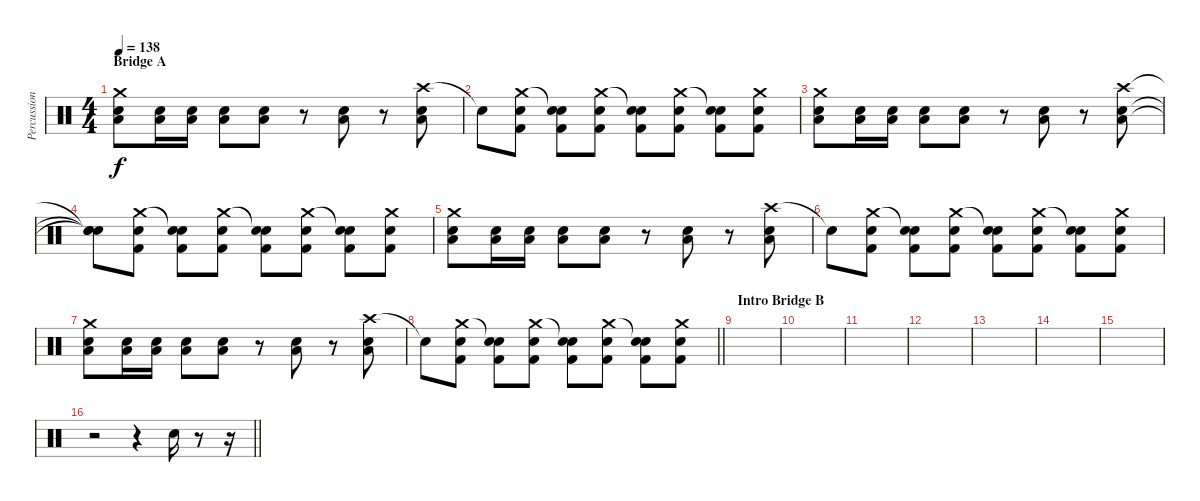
\track ("Percussion" "Percussion") {instrument percussion}
\staff {score}
\articulation defaults
\ts (4 4)
\section ("" "Bridge A")
\tempo 138
\clef neutral
\ks c
("Crash medium (hit)" "Electric Snare (hit)" "Low Tom (hit)").8{dy f} ("Low Tom (hit)" "Electric Snare (hit)").16 ("Low Tom (hit)" "Electric Snare (hit)").16 ("Low Tom (hit)" "Electric Snare (hit)").8 ("Low Tom (hit)" "Electric Snare (hit)").8 r.8 ("Low Tom (hit)" "Electric Snare (hit)").8 r.8 ("Crash high (hit)" "Low Tom (hit)" "Electric Snare (hit)").8 |
"Snare (hit)"{t}.8 ("Crash medium (hit)" "Electric Snare (hit)" "Kick (hit) 2").8 ("Snare (hit)"{t} "Electric Snare (hit)" "Kick (hit) 2").8 ("Crash medium (hit)" "Electric Snare (hit)" "Kick (hit) 2").8 ("Snare (hit)"{t} "Electric Snare (hit)" "Kick (hit) 2").8 ("Crash medium (hit)" "Electric Snare (hit)" "Kick (hit) 2").8 ("Snare (hit)"{t} "Electric Snare (hit)" "Kick (hit) 2").8 ("Crash medium (hit)" "Electric Snare (hit)" "Kick (hit) 2").8 |
("Crash medium (hit)" "Electric Snare (hit)" "Low Tom (hit)").8 ("Low Tom (hit)" "Electric Snare (hit)").16 ("Low Tom (hit)" "Electric Snare (hit)").16 ("Low Tom (hit)" "Electric Snare (hit)").8 ("Low Tom (hit)" "Electric Snare (hit)").8 r.8 ("Low Tom (hit)" "Electric Snare (hit)").8 r.8 ("Crash high (hit)" "Low Tom (hit)" "Electric Snare (hit)").8 |
("Snare (hit)"{t} "Snare (hit)"{t} "Snare (hit)"{t}).8 ("Crash medium (hit)" "Electric Snare (hit)" "Kick (hit) 2").8 ("Snare (hit)"{t} "Electric Snare (hit)" "Kick (hit) 2").8 ("Crash medium (hit)" "Electric Snare (hit)" "Kick (hit) 2").8 ("Snare (hit)"{t} "Electric Snare (hit)" "Kick (hit) 2").8 ("Crash medium (hit)" "Electric Snare (hit)" "Kick (hit) 2").8 ("Snare (hit)"{t} "Electric Snare (hit)" "Kick (hit) 2").8 ("Crash medium (hit)" "Electric Snare (hit)" "Kick (hit) 2").8 |
("Crash medium (hit)" "Electric Snare (hit)" "Low Tom (hit)").8 ("Low Tom (hit)" "Electric Snare (hit)").16 ("Low Tom (hit)" "Electric Snare (hit)").16 ("Low Tom (hit)" "Electric Snare (hit)").8 ("Low Tom (hit)" "Electric Snare (hit)").8 r.8 ("Low Tom (hit)" "Electric Snare (hit)").8 r.8 ("Crash high (hit)" "Low Tom (hit)" "Electric Snare (hit)").8 |
"Snare (hit)"{t}.8 ("Crash medium (hit)" "Electric Snare (hit)" "Kick (hit) 2").8 ("Snare (hit)"{t} "Electric Snare (hit)" "Kick (hit) 2").8 ("Crash medium (hit)" "Electric Snare (hit)" "Kick (hit) 2").8 ("Snare (hit)"{t} "Electric Snare (hit)" "Kick (hit) 2").8 ("Crash medium (hit)" "Electric Snare (hit)" "Kick (hit) 2").8 ("Snare (hit)"{t} "Electric Snare (hit)" "Kick (hit) 2").8 ("Crash medium (hit)" "Electric Snare (hit)" "Kick (hit) 2").8 |
("Crash medium (hit)" "Electric Snare (hit)" "Low Tom (hit)").8 ("Low Tom (hit)" "Electric Snare (hit)").16 ("Low Tom (hit)" "Electric Snare (hit)").16 ("Low Tom (hit)" "Electric Snare (hit)").8 ("Low Tom (hit)" "Electric Snare (hit)").8 r.8 ("Low Tom (hit)" "Electric Snare (hit)").8 r.8 ("Crash high (hit)" "Low Tom (hit)" "Electric Snare (hit)").8 |
\barLineRight lightlight "Snare (hit)"{t}.8
("Crash medium (hit)" "Electric Snare (hit)" "Kick (hit) 2").8 ("Snare (hit)"{t} "Electric Snare (hit)" "Kick (hit) 2").8 ("Crash medium (hit)" "Electric Snare (hit)" "Kick (hit) 2").8 ("Snare (hit)"{t} "Electric Snare (hit)" "Kick (hit) 2").8 ("Crash medium (hit)" "Electric Snare (hit)" "Kick (hit) 2").8 ("Snare (hit)"{t} "Electric Snare (hit)" "Kick (hit) 2").8 ("Crash medium (hit)" "Electric Snare (hit)" "Kick (hit) 2").8 |
\section ("" "Intro Bridge B")
|
|
|
|
|
|
|
\barLineRight lightlight
r.2 r.4 "Electric Snare (hit)".16 r.8 r.16
